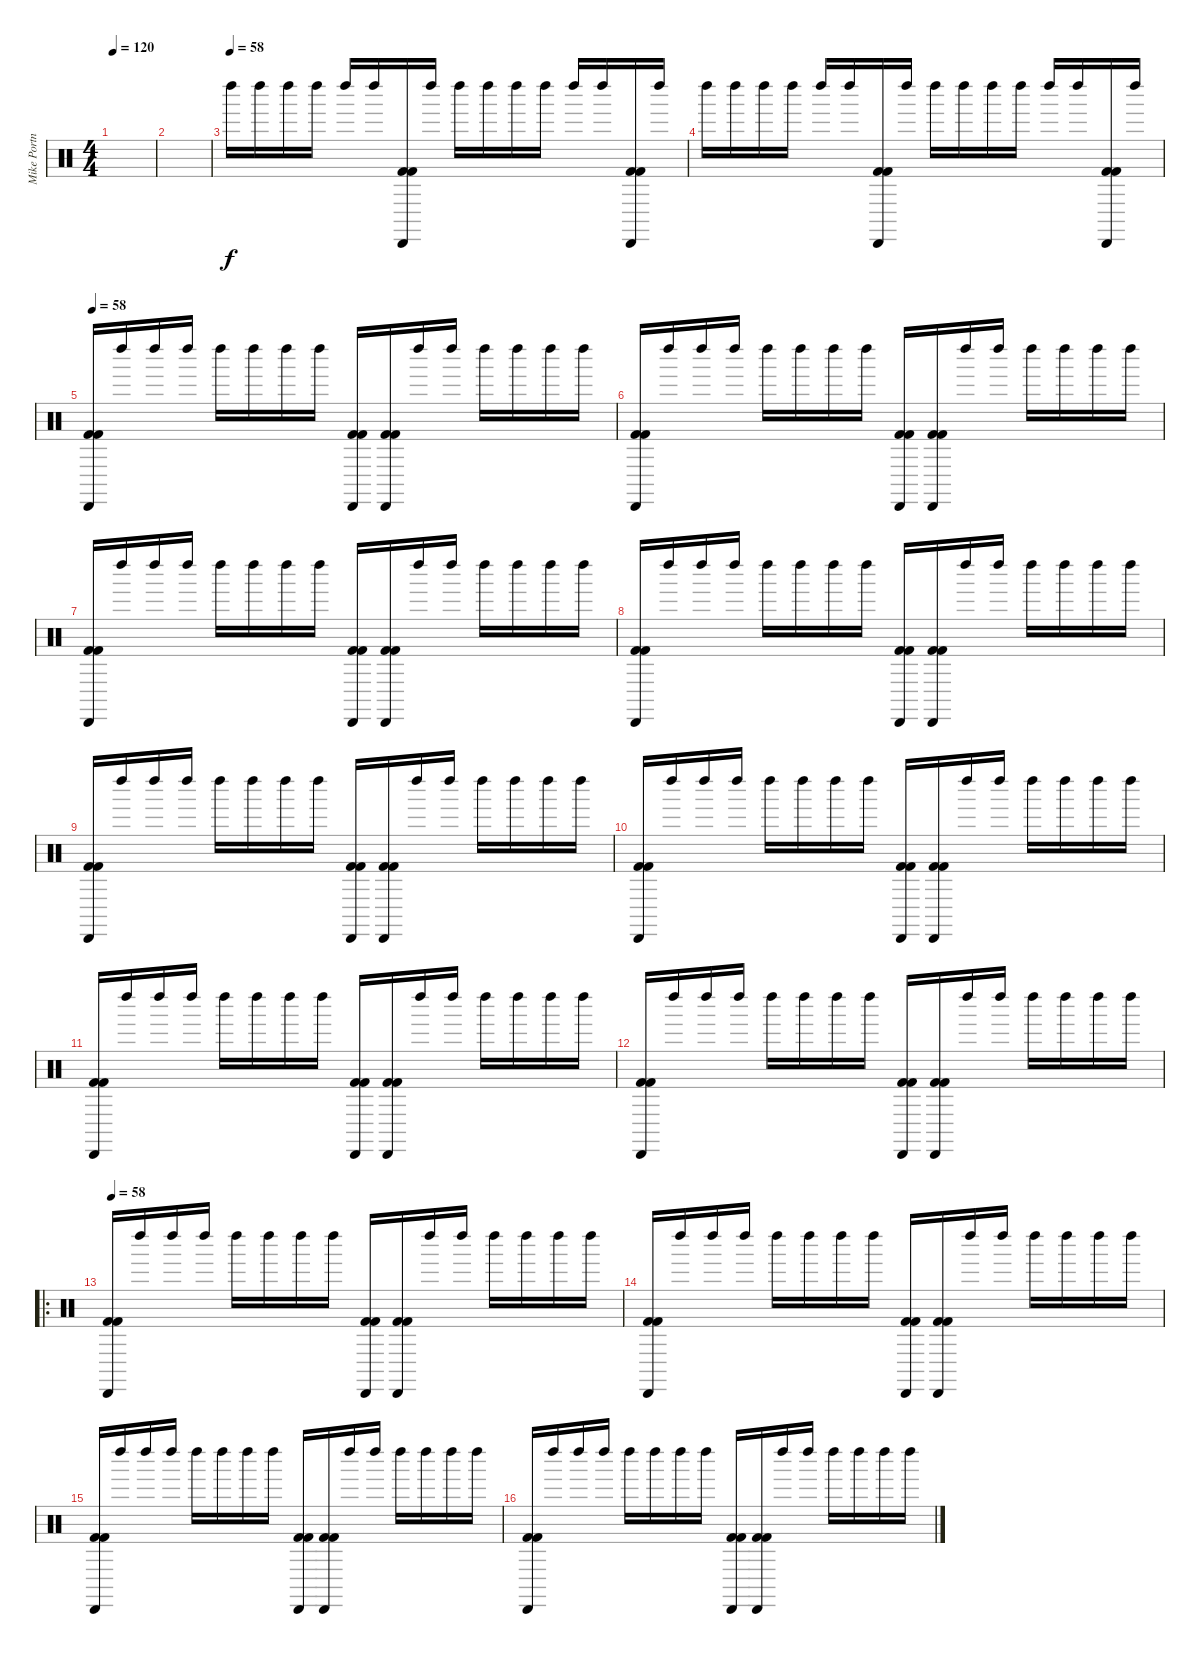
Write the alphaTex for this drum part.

\track ("Mike Portnoy - Drum" "Mike Portn") {instrument percussion}
\staff {score}
\articulation defaults
\ts (4 4)
\tempo 120
\clef neutral
\ks c
|
|
\tempo (58)
"Left Maraca (hit)".16 "Left Maraca (hit)".16 "Left Maraca (hit)".16 "Left Maraca (hit)".16 "Left Maraca (hit)".16 "Left Maraca (hit)".16 ("Cabasa (hit)" "Kick (hit) 2" "Kick (hit) 2").16 "Left Maraca (hit)".16 "Left Maraca (hit)".16 "Left Maraca (hit)".16 "Left Maraca (hit)".16 "Left Maraca (hit)".16 "Left Maraca (hit)".16 "Left Maraca (hit)".16 ("Cabasa (hit)" "Kick (hit) 2" "Kick (hit) 2").16 "Left Maraca (hit)".16 |
"Left Maraca (hit)".16 "Left Maraca (hit)".16 "Left Maraca (hit)".16 "Left Maraca (hit)".16 "Left Maraca (hit)".16 "Left Maraca (hit)".16 ("Cabasa (hit)" "Kick (hit) 2" "Kick (hit) 2").16 "Left Maraca (hit)".16 "Left Maraca (hit)".16 "Left Maraca (hit)".16 "Left Maraca (hit)".16 "Left Maraca (hit)".16 "Left Maraca (hit)".16 "Left Maraca (hit)".16 ("Cabasa (hit)" "Kick (hit) 2" "Kick (hit) 2").16 "Left Maraca (hit)".16 |
\tempo 58
("Cabasa (hit)" "Kick (hit) 2" "Kick (hit) 2").16 "Left Maraca (hit)".16 "Left Maraca (hit)".16 "Left Maraca (hit)".16 "Left Maraca (hit)".16 "Left Maraca (hit)".16 "Left Maraca (hit)".16 "Left Maraca (hit)".16 ("Cabasa (hit)" "Kick (hit) 2" "Kick (hit) 2").16 ("Cabasa (hit)" "Kick (hit) 2" "Kick (hit) 2").16 "Left Maraca (hit)".16 "Left Maraca (hit)".16 "Left Maraca (hit)".16 "Left Maraca (hit)".16 "Left Maraca (hit)".16 "Left Maraca (hit)".16 |
("Cabasa (hit)" "Kick (hit) 2" "Kick (hit) 2").16 "Left Maraca (hit)".16 "Left Maraca (hit)".16 "Left Maraca (hit)".16 "Left Maraca (hit)".16 "Left Maraca (hit)".16 "Left Maraca (hit)".16 "Left Maraca (hit)".16 ("Cabasa (hit)" "Kick (hit) 2" "Kick (hit) 2").16 ("Cabasa (hit)" "Kick (hit) 2" "Kick (hit) 2").16 "Left Maraca (hit)".16 "Left Maraca (hit)".16 "Left Maraca (hit)".16 "Left Maraca (hit)".16 "Left Maraca (hit)".16 "Left Maraca (hit)".16 |
("Cabasa (hit)" "Kick (hit) 2" "Kick (hit) 2").16 "Left Maraca (hit)".16 "Left Maraca (hit)".16 "Left Maraca (hit)".16 "Left Maraca (hit)".16 "Left Maraca (hit)".16 "Left Maraca (hit)".16 "Left Maraca (hit)".16 ("Cabasa (hit)" "Kick (hit) 2" "Kick (hit) 2").16 ("Cabasa (hit)" "Kick (hit) 2" "Kick (hit) 2").16 "Left Maraca (hit)".16 "Left Maraca (hit)".16 "Left Maraca (hit)".16 "Left Maraca (hit)".16 "Left Maraca (hit)".16 "Left Maraca (hit)".16 |
("Cabasa (hit)" "Kick (hit) 2" "Kick (hit) 2").16 "Left Maraca (hit)".16 "Left Maraca (hit)".16 "Left Maraca (hit)".16 "Left Maraca (hit)".16 "Left Maraca (hit)".16 "Left Maraca (hit)".16 "Left Maraca (hit)".16 ("Cabasa (hit)" "Kick (hit) 2" "Kick (hit) 2").16 ("Cabasa (hit)" "Kick (hit) 2" "Kick (hit) 2").16 "Left Maraca (hit)".16 "Left Maraca (hit)".16 "Left Maraca (hit)".16 "Left Maraca (hit)".16 "Left Maraca (hit)".16 "Left Maraca (hit)".16 |
("Cabasa (hit)" "Kick (hit) 2" "Kick (hit) 2").16 "Left Maraca (hit)".16 "Left Maraca (hit)".16 "Left Maraca (hit)".16 "Left Maraca (hit)".16 "Left Maraca (hit)".16 "Left Maraca (hit)".16 "Left Maraca (hit)".16 ("Cabasa (hit)" "Kick (hit) 2" "Kick (hit) 2").16 ("Cabasa (hit)" "Kick (hit) 2" "Kick (hit) 2").16 "Left Maraca (hit)".16 "Left Maraca (hit)".16 "Left Maraca (hit)".16 "Left Maraca (hit)".16 "Left Maraca (hit)".16 "Left Maraca (hit)".16 |
("Cabasa (hit)" "Kick (hit) 2" "Kick (hit) 2").16 "Left Maraca (hit)".16 "Left Maraca (hit)".16 "Left Maraca (hit)".16 "Left Maraca (hit)".16 "Left Maraca (hit)".16 "Left Maraca (hit)".16 "Left Maraca (hit)".16 ("Cabasa (hit)" "Kick (hit) 2" "Kick (hit) 2").16 ("Cabasa (hit)" "Kick (hit) 2" "Kick (hit) 2").16 "Left Maraca (hit)".16 "Left Maraca (hit)".16 "Left Maraca (hit)".16 "Left Maraca (hit)".16 "Left Maraca (hit)".16 "Left Maraca (hit)".16 |
("Cabasa (hit)" "Kick (hit) 2" "Kick (hit) 2").16 "Left Maraca (hit)".16 "Left Maraca (hit)".16 "Left Maraca (hit)".16 "Left Maraca (hit)".16 "Left Maraca (hit)".16 "Left Maraca (hit)".16 "Left Maraca (hit)".16 ("Cabasa (hit)" "Kick (hit) 2" "Kick (hit) 2").16 ("Cabasa (hit)" "Kick (hit) 2" "Kick (hit) 2").16 "Left Maraca (hit)".16 "Left Maraca (hit)".16 "Left Maraca (hit)".16 "Left Maraca (hit)".16 "Left Maraca (hit)".16 "Left Maraca (hit)".16 |
("Cabasa (hit)" "Kick (hit) 2" "Kick (hit) 2").16 "Left Maraca (hit)".16 "Left Maraca (hit)".16 "Left Maraca (hit)".16 "Left Maraca (hit)".16 "Left Maraca (hit)".16 "Left Maraca (hit)".16 "Left Maraca (hit)".16 ("Cabasa (hit)" "Kick (hit) 2" "Kick (hit) 2").16 ("Cabasa (hit)" "Kick (hit) 2" "Kick (hit) 2").16 "Left Maraca (hit)".16 "Left Maraca (hit)".16 "Left Maraca (hit)".16 "Left Maraca (hit)".16 "Left Maraca (hit)".16 "Left Maraca (hit)".16 |
\ro
\tempo 58
("Cabasa (hit)" "Kick (hit) 2" "Kick (hit) 2").16 "Left Maraca (hit)".16 "Left Maraca (hit)".16 "Left Maraca (hit)".16 "Left Maraca (hit)".16 "Left Maraca (hit)".16 "Left Maraca (hit)".16 "Left Maraca (hit)".16 ("Cabasa (hit)" "Kick (hit) 2" "Kick (hit) 2").16 ("Cabasa (hit)" "Kick (hit) 2" "Kick (hit) 2").16 "Left Maraca (hit)".16 "Left Maraca (hit)".16 "Left Maraca (hit)".16 "Left Maraca (hit)".16 "Left Maraca (hit)".16 "Left Maraca (hit)".16 |
("Cabasa (hit)" "Kick (hit) 2" "Kick (hit) 2").16 "Left Maraca (hit)".16 "Left Maraca (hit)".16 "Left Maraca (hit)".16 "Left Maraca (hit)".16 "Left Maraca (hit)".16 "Left Maraca (hit)".16 "Left Maraca (hit)".16 ("Cabasa (hit)" "Kick (hit) 2" "Kick (hit) 2").16 ("Cabasa (hit)" "Kick (hit) 2" "Kick (hit) 2").16 "Left Maraca (hit)".16 "Left Maraca (hit)".16 "Left Maraca (hit)".16 "Left Maraca (hit)".16 "Left Maraca (hit)".16 "Left Maraca (hit)".16 |
("Cabasa (hit)" "Kick (hit) 2" "Kick (hit) 2").16 "Left Maraca (hit)".16 "Left Maraca (hit)".16 "Left Maraca (hit)".16 "Left Maraca (hit)".16 "Left Maraca (hit)".16 "Left Maraca (hit)".16 "Left Maraca (hit)".16 ("Cabasa (hit)" "Kick (hit) 2" "Kick (hit) 2").16 ("Cabasa (hit)" "Kick (hit) 2" "Kick (hit) 2").16 "Left Maraca (hit)".16 "Left Maraca (hit)".16 "Left Maraca (hit)".16 "Left Maraca (hit)".16 "Left Maraca (hit)".16 "Left Maraca (hit)".16 |
("Cabasa (hit)" "Kick (hit) 2" "Kick (hit) 2").16 "Left Maraca (hit)".16 "Left Maraca (hit)".16 "Left Maraca (hit)".16 "Left Maraca (hit)".16 "Left Maraca (hit)".16 "Left Maraca (hit)".16 "Left Maraca (hit)".16 ("Cabasa (hit)" "Kick (hit) 2" "Kick (hit) 2").16 ("Cabasa (hit)" "Kick (hit) 2" "Kick (hit) 2").16 "Left Maraca (hit)".16 "Left Maraca (hit)".16 "Left Maraca (hit)".16 "Left Maraca (hit)".16 "Left Maraca (hit)".16 "Left Maraca (hit)".16
